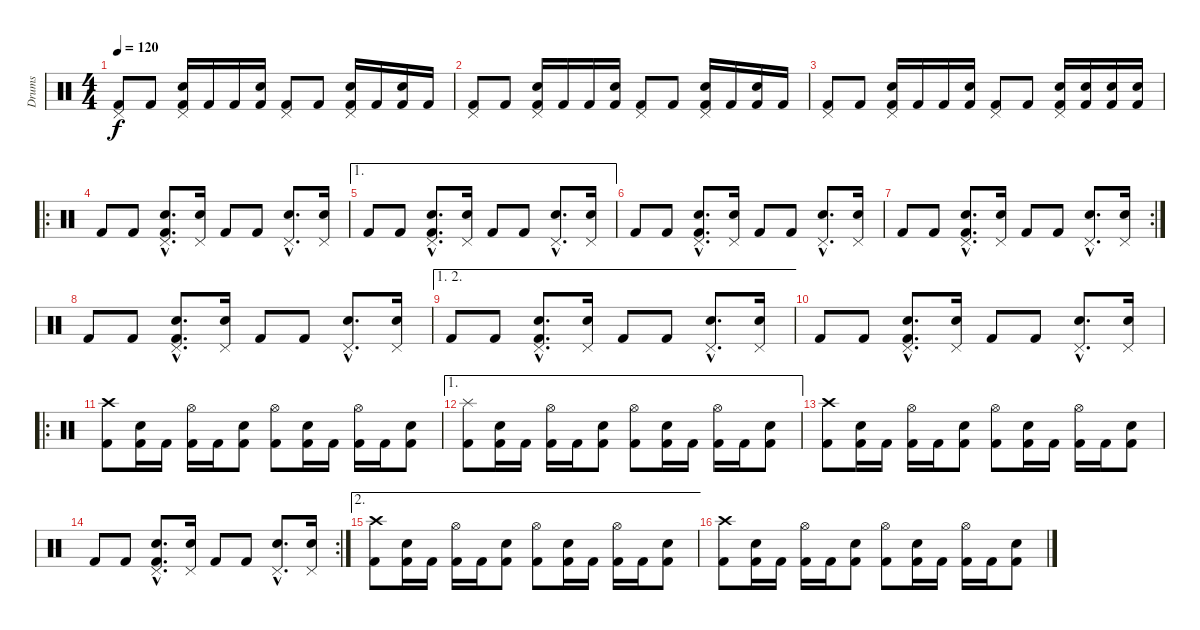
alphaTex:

\track ("Drums" "Drums") {instrument percussion}
\staff {score}
\articulation defaults
\ts (4 4)
\tempo 120
\clef neutral
\ks c
("Pedal Hi-Hat (hit)" "Kick (hit) 2").8{dy f} "Kick (hit) 2".8 ("Pedal Hi-Hat (hit)" "Electric Snare (hit)" "Kick (hit) 2").16 "Kick (hit) 2".16 "Kick (hit) 2".16 ("Electric Snare (hit)" "Kick (hit) 2").16 ("Pedal Hi-Hat (hit)" "Kick (hit) 2").8 "Kick (hit) 2".8 ("Pedal Hi-Hat (hit)" "Electric Snare (hit)" "Kick (hit) 2").16 "Kick (hit) 2".16 ("Electric Snare (hit)" "Kick (hit) 2").16 "Kick (hit) 2".16 |
("Pedal Hi-Hat (hit)" "Kick (hit) 2").8 "Kick (hit) 2".8 ("Pedal Hi-Hat (hit)" "Electric Snare (hit)" "Kick (hit) 2").16 "Kick (hit) 2".16 "Kick (hit) 2".16 ("Electric Snare (hit)" "Kick (hit) 2").16 ("Pedal Hi-Hat (hit)" "Kick (hit) 2").8 "Kick (hit) 2".8 ("Pedal Hi-Hat (hit)" "Electric Snare (hit)" "Kick (hit) 2").16 "Kick (hit) 2".16 ("Electric Snare (hit)" "Kick (hit) 2").16 "Kick (hit) 2".16 |
("Pedal Hi-Hat (hit)" "Kick (hit) 2").8 "Kick (hit) 2".8 ("Pedal Hi-Hat (hit)" "Electric Snare (hit)" "Kick (hit) 2").16 "Kick (hit) 2".16 "Kick (hit) 2".16 ("Electric Snare (hit)" "Kick (hit) 2").16 ("Pedal Hi-Hat (hit)" "Kick (hit) 2").8 "Kick (hit) 2".8 ("Pedal Hi-Hat (hit)" "Electric Snare (hit)" "Kick (hit) 2").16 ("Electric Snare (hit)" "Kick (hit) 2").16 ("Electric Snare (hit)" "Kick (hit) 2").16 ("Electric Snare (hit)" "Kick (hit) 2").16 |
\ro "Kick (hit) 2".8 "Kick (hit) 2".8
("Pedal Hi-Hat (hit)"{hac} "Electric Snare (hit)"{hac} "Kick (hit) 2"{hac}).8{d} ("Pedal Hi-Hat (hit)" "Electric Snare (hit)").16 "Kick (hit) 2".8 "Kick (hit) 2".8 ("Pedal Hi-Hat (hit)"{hac} "Electric Snare (hit)"{hac}).8{d} ("Pedal Hi-Hat (hit)" "Electric Snare (hit)").16 |
\ae 1 "Kick (hit) 2".8 "Kick (hit) 2".8
("Pedal Hi-Hat (hit)"{hac} "Electric Snare (hit)"{hac} "Kick (hit) 2"{hac}).8{d} ("Pedal Hi-Hat (hit)" "Electric Snare (hit)").16 "Kick (hit) 2".8 "Kick (hit) 2".8 ("Pedal Hi-Hat (hit)"{hac} "Electric Snare (hit)"{hac}).8{d} ("Pedal Hi-Hat (hit)" "Electric Snare (hit)").16 |
"Kick (hit) 2".8 "Kick (hit) 2".8 ("Pedal Hi-Hat (hit)"{hac} "Electric Snare (hit)"{hac} "Kick (hit) 2"{hac}).8{d} ("Pedal Hi-Hat (hit)" "Electric Snare (hit)").16 "Kick (hit) 2".8 "Kick (hit) 2".8 ("Pedal Hi-Hat (hit)"{hac} "Electric Snare (hit)"{hac}).8{d} ("Pedal Hi-Hat (hit)" "Electric Snare (hit)").16 |
\rc 2 "Kick (hit) 2".8 "Kick (hit) 2".8
("Pedal Hi-Hat (hit)"{hac} "Electric Snare (hit)"{hac} "Kick (hit) 2"{hac}).8{d} ("Pedal Hi-Hat (hit)" "Electric Snare (hit)").16 "Kick (hit) 2".8 "Kick (hit) 2".8 ("Pedal Hi-Hat (hit)"{hac} "Electric Snare (hit)"{hac}).8{d} ("Pedal Hi-Hat (hit)" "Electric Snare (hit)").16 |
"Kick (hit) 2".8 "Kick (hit) 2".8 ("Pedal Hi-Hat (hit)"{hac} "Electric Snare (hit)"{hac} "Kick (hit) 2"{hac}).8{d} ("Pedal Hi-Hat (hit)" "Electric Snare (hit)").16 "Kick (hit) 2".8 "Kick (hit) 2".8 ("Pedal Hi-Hat (hit)"{hac} "Electric Snare (hit)"{hac}).8{d} ("Pedal Hi-Hat (hit)" "Electric Snare (hit)").16 |
\ae (1 2)
"Kick (hit) 2".8 "Kick (hit) 2".8 ("Pedal Hi-Hat (hit)"{hac} "Electric Snare (hit)"{hac} "Kick (hit) 2"{hac}).8{d} ("Pedal Hi-Hat (hit)" "Electric Snare (hit)").16 "Kick (hit) 2".8 "Kick (hit) 2".8 ("Pedal Hi-Hat (hit)"{hac} "Electric Snare (hit)"{hac}).8{d} ("Pedal Hi-Hat (hit)" "Electric Snare (hit)").16 |
"Kick (hit) 2".8 "Kick (hit) 2".8 ("Pedal Hi-Hat (hit)"{hac} "Electric Snare (hit)"{hac} "Kick (hit) 2"{hac}).8{d} ("Pedal Hi-Hat (hit)" "Electric Snare (hit)").16 "Kick (hit) 2".8 "Kick (hit) 2".8 ("Pedal Hi-Hat (hit)"{hac} "Electric Snare (hit)"{hac}).8{d} ("Pedal Hi-Hat (hit)" "Electric Snare (hit)").16 |
\ro
("Crash high (hit)" "Kick (hit) 2").8 ("Electric Snare (hit)" "Kick (hit) 2").16 "Kick (hit) 2".16 ("Hi-Hat (open)" "Kick (hit) 2").16 "Kick (hit) 2".16 ("Electric Snare (hit)" "Kick (hit) 2").8 ("Hi-Hat (open)" "Kick (hit) 2").8 ("Electric Snare (hit)" "Kick (hit) 2").16 "Kick (hit) 2".16 ("Hi-Hat (open)" "Kick (hit) 2").16 "Kick (hit) 2".16 ("Electric Snare (hit)" "Kick (hit) 2").8 |
\ae 1
("Splash (hit)" "Kick (hit) 2").8 ("Electric Snare (hit)" "Kick (hit) 2").16 "Kick (hit) 2".16 ("Hi-Hat (open)" "Kick (hit) 2").16 "Kick (hit) 2".16 ("Electric Snare (hit)" "Kick (hit) 2").8 ("Hi-Hat (open)" "Kick (hit) 2").8 ("Electric Snare (hit)" "Kick (hit) 2").16 "Kick (hit) 2".16 ("Hi-Hat (open)" "Kick (hit) 2").16 "Kick (hit) 2".16 ("Electric Snare (hit)" "Kick (hit) 2").8 |
("Crash high (hit)" "Kick (hit) 2").8 ("Electric Snare (hit)" "Kick (hit) 2").16 "Kick (hit) 2".16 ("Hi-Hat (open)" "Kick (hit) 2").16 "Kick (hit) 2".16 ("Electric Snare (hit)" "Kick (hit) 2").8 ("Hi-Hat (open)" "Kick (hit) 2").8 ("Electric Snare (hit)" "Kick (hit) 2").16 "Kick (hit) 2".16 ("Hi-Hat (open)" "Kick (hit) 2").16 "Kick (hit) 2".16 ("Electric Snare (hit)" "Kick (hit) 2").8 |
\rc 2 "Kick (hit) 2".8 "Kick (hit) 2".8
("Pedal Hi-Hat (hit)"{hac} "Electric Snare (hit)"{hac} "Kick (hit) 2"{hac}).8{d} ("Pedal Hi-Hat (hit)" "Electric Snare (hit)").16 "Kick (hit) 2".8 "Kick (hit) 2".8 ("Pedal Hi-Hat (hit)"{hac} "Electric Snare (hit)"{hac}).8{d} ("Pedal Hi-Hat (hit)" "Electric Snare (hit)").16 |
\ae 2
("Crash high (hit)" "Kick (hit) 2").8 ("Electric Snare (hit)" "Kick (hit) 2").16 "Kick (hit) 2".16 ("Hi-Hat (open)" "Kick (hit) 2").16 "Kick (hit) 2".16 ("Electric Snare (hit)" "Kick (hit) 2").8 ("Hi-Hat (open)" "Kick (hit) 2").8 ("Electric Snare (hit)" "Kick (hit) 2").16 "Kick (hit) 2".16 ("Hi-Hat (open)" "Kick (hit) 2").16 "Kick (hit) 2".16 ("Electric Snare (hit)" "Kick (hit) 2").8 |
("Crash high (hit)" "Kick (hit) 2").8 ("Electric Snare (hit)" "Kick (hit) 2").16 "Kick (hit) 2".16 ("Hi-Hat (open)" "Kick (hit) 2").16 "Kick (hit) 2".16 ("Electric Snare (hit)" "Kick (hit) 2").8 ("Hi-Hat (open)" "Kick (hit) 2").8 ("Electric Snare (hit)" "Kick (hit) 2").16 "Kick (hit) 2".16 ("Hi-Hat (open)" "Kick (hit) 2").16 "Kick (hit) 2".16 ("Electric Snare (hit)" "Kick (hit) 2").8
